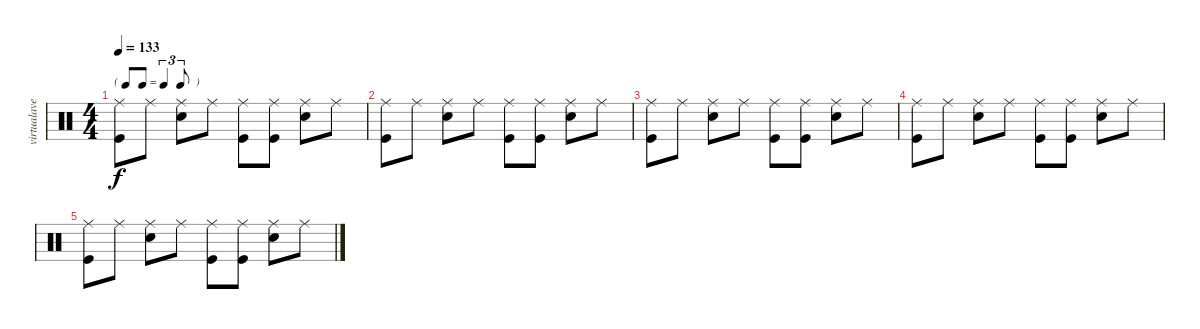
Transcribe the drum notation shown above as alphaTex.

\track ("virtualave.net" "virtualave") {instrument percussion}
\staff {score}
\articulation defaults
\ts (4 4)
\tf triplet8th
\tempo 133
\clef neutral
\ks c
("Ride (middle)" "Kick (hit)").8{dy f} "Ride (middle)".8 ("Ride (middle)" "Snare (hit) 2").8 "Ride (middle)".8 ("Ride (middle)" "Kick (hit)").8 ("Ride (middle)" "Kick (hit)").8 ("Ride (middle)" "Snare (hit) 2").8 "Ride (middle)".8 |
("Ride (middle)" "Kick (hit)").8 "Ride (middle)".8 ("Ride (middle)" "Snare (hit) 2").8 "Ride (middle)".8 ("Ride (middle)" "Kick (hit)").8 ("Ride (middle)" "Kick (hit)").8 ("Ride (middle)" "Snare (hit) 2").8 "Ride (middle)".8 |
("Ride (middle)" "Kick (hit)").8 "Ride (middle)".8 ("Ride (middle)" "Snare (hit) 2").8 "Ride (middle)".8 ("Ride (middle)" "Kick (hit)").8 ("Ride (middle)" "Kick (hit)").8 ("Ride (middle)" "Snare (hit) 2").8 "Ride (middle)".8 |
("Ride (middle)" "Kick (hit)").8{volume 0} "Ride (middle)".8 ("Ride (middle)" "Snare (hit) 2").8 "Ride (middle)".8 ("Ride (middle)" "Kick (hit)").8 ("Ride (middle)" "Kick (hit)").8 ("Ride (middle)" "Snare (hit) 2").8 "Ride (middle)".8 |
("Ride (middle)" "Kick (hit)").8 "Ride (middle)".8 ("Ride (middle)" "Snare (hit) 2").8 "Ride (middle)".8 ("Ride (middle)" "Kick (hit)").8 ("Ride (middle)" "Kick (hit)").8 ("Ride (middle)" "Snare (hit) 2").8 "Ride (middle)".8
